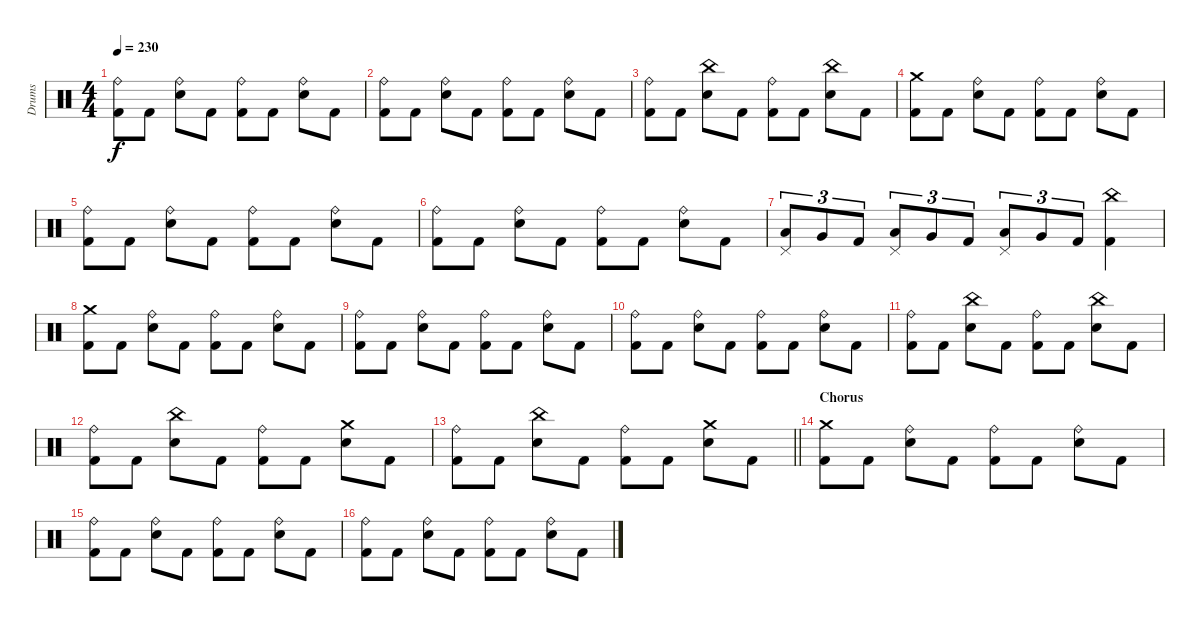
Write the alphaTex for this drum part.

\track ("Drums" "Drums") {instrument percussion}
\staff {score}
\articulation defaults
\ts (4 4)
\tempo 230
\clef neutral
\ks c
("Ride (bell)" "Kick (hit) 2").8{dy f} "Kick (hit) 2".8 ("Ride (bell)" "Snare (hit) 2").8 "Kick (hit) 2".8 ("Ride (bell)" "Kick (hit) 2").8 "Kick (hit) 2".8 ("Ride (bell)" "Snare (hit) 2").8 "Kick (hit) 2".8 |
("Ride (bell)" "Kick (hit) 2").8 "Kick (hit) 2".8 ("Ride (bell)" "Snare (hit) 2").8 "Kick (hit) 2".8 ("Ride (bell)" "Kick (hit) 2").8 "Kick (hit) 2".8 ("Ride (bell)" "Snare (hit) 2").8 "Kick (hit) 2".8 |
("Ride (bell)" "Kick (hit) 2").8 "Kick (hit) 2".8 ("China (hit)" "Snare (hit) 2").8 "Kick (hit) 2".8 ("Ride (bell)" "Kick (hit) 2").8 "Kick (hit) 2".8 ("China (hit)" "Snare (hit) 2").8 "Kick (hit) 2".8 |
("Crash medium (hit)" "Kick (hit) 2").8 "Kick (hit) 2".8 ("Ride (bell)" "Snare (hit) 2").8 "Kick (hit) 2".8 ("Ride (bell)" "Kick (hit) 2").8 "Kick (hit) 2".8 ("Ride (bell)" "Snare (hit) 2").8 "Kick (hit) 2".8 |
("Ride (bell)" "Kick (hit) 2").8 "Kick (hit) 2".8 ("Ride (bell)" "Snare (hit) 2").8 "Kick (hit) 2".8 ("Ride (bell)" "Kick (hit) 2").8 "Kick (hit) 2".8 ("Ride (bell)" "Snare (hit) 2").8 "Kick (hit) 2".8 |
("Ride (bell)" "Kick (hit) 2").8 "Kick (hit) 2".8 ("Ride (bell)" "Snare (hit) 2").8 "Kick (hit) 2".8 ("Ride (bell)" "Kick (hit) 2").8 "Kick (hit) 2".8 ("Ride (bell)" "Snare (hit) 2").8 "Kick (hit) 2".8 |
("Pedal Hi-Hat (hit)" "Low Floor Tom (hit)").8{tu (3 2)} "Very Low Tom (hit)".8{tu (3 2)} "Kick (hit) 2".8{tu (3 2)} ("Pedal Hi-Hat (hit)" "Low Floor Tom (hit)").8{tu (3 2)} "Very Low Tom (hit)".8{tu (3 2)} "Kick (hit) 2".8{tu (3 2)} ("Pedal Hi-Hat (hit)" "Low Floor Tom (hit)").8{tu (3 2)} "Very Low Tom (hit)".8{tu (3 2)} "Kick (hit) 2".8{tu (3 2)} ("China (hit)" "Kick (hit) 2").4 |
("Crash medium (hit)" "Kick (hit) 2").8 "Kick (hit) 2".8 ("Ride (bell)" "Snare (hit) 2").8 "Kick (hit) 2".8 ("Ride (bell)" "Kick (hit) 2").8 "Kick (hit) 2".8 ("Ride (bell)" "Snare (hit) 2").8 "Kick (hit) 2".8 |
("Ride (bell)" "Kick (hit) 2").8 "Kick (hit) 2".8 ("Ride (bell)" "Snare (hit) 2").8 "Kick (hit) 2".8 ("Ride (bell)" "Kick (hit) 2").8 "Kick (hit) 2".8 ("Ride (bell)" "Snare (hit) 2").8 "Kick (hit) 2".8 |
("Ride (bell)" "Kick (hit) 2").8 "Kick (hit) 2".8 ("Ride (bell)" "Snare (hit) 2").8 "Kick (hit) 2".8 ("Ride (bell)" "Kick (hit) 2").8 "Kick (hit) 2".8 ("Ride (bell)" "Snare (hit) 2").8 "Kick (hit) 2".8 |
("Ride (bell)" "Kick (hit) 2").8 "Kick (hit) 2".8 ("China (hit)" "Snare (hit) 2").8 "Kick (hit) 2".8 ("Ride (bell)" "Kick (hit) 2").8 "Kick (hit) 2".8 ("China (hit)" "Snare (hit) 2").8 "Kick (hit) 2".8 |
("Ride (bell)" "Kick (hit) 2").8 "Kick (hit) 2".8 ("China (hit)" "Snare (hit) 2").8 "Kick (hit) 2".8 ("Ride (bell)" "Kick (hit) 2").8 "Kick (hit) 2".8 ("Crash medium (hit)" "Snare (hit) 2").8 "Kick (hit) 2".8 |
\barLineRight lightlight
("Ride (bell)" "Kick (hit) 2").8 "Kick (hit) 2".8 ("China (hit)" "Snare (hit) 2").8 "Kick (hit) 2".8 ("Ride (bell)" "Kick (hit) 2").8 "Kick (hit) 2".8 ("Crash medium (hit)" "Snare (hit) 2").8 "Kick (hit) 2".8 |
\section ("" "Chorus")
("Crash medium (hit)" "Kick (hit) 2").8 "Kick (hit) 2".8 ("Ride (bell)" "Snare (hit) 2").8 "Kick (hit) 2".8 ("Ride (bell)" "Kick (hit) 2").8 "Kick (hit) 2".8 ("Ride (bell)" "Snare (hit) 2").8 "Kick (hit) 2".8 |
("Ride (bell)" "Kick (hit) 2").8 "Kick (hit) 2".8 ("Ride (bell)" "Snare (hit) 2").8 "Kick (hit) 2".8 ("Ride (bell)" "Kick (hit) 2").8 "Kick (hit) 2".8 ("Ride (bell)" "Snare (hit) 2").8 "Kick (hit) 2".8 |
("Ride (bell)" "Kick (hit) 2").8 "Kick (hit) 2".8 ("Ride (bell)" "Snare (hit) 2").8 "Kick (hit) 2".8 ("Ride (bell)" "Kick (hit) 2").8 "Kick (hit) 2".8 ("Ride (bell)" "Snare (hit) 2").8 "Kick (hit) 2".8
